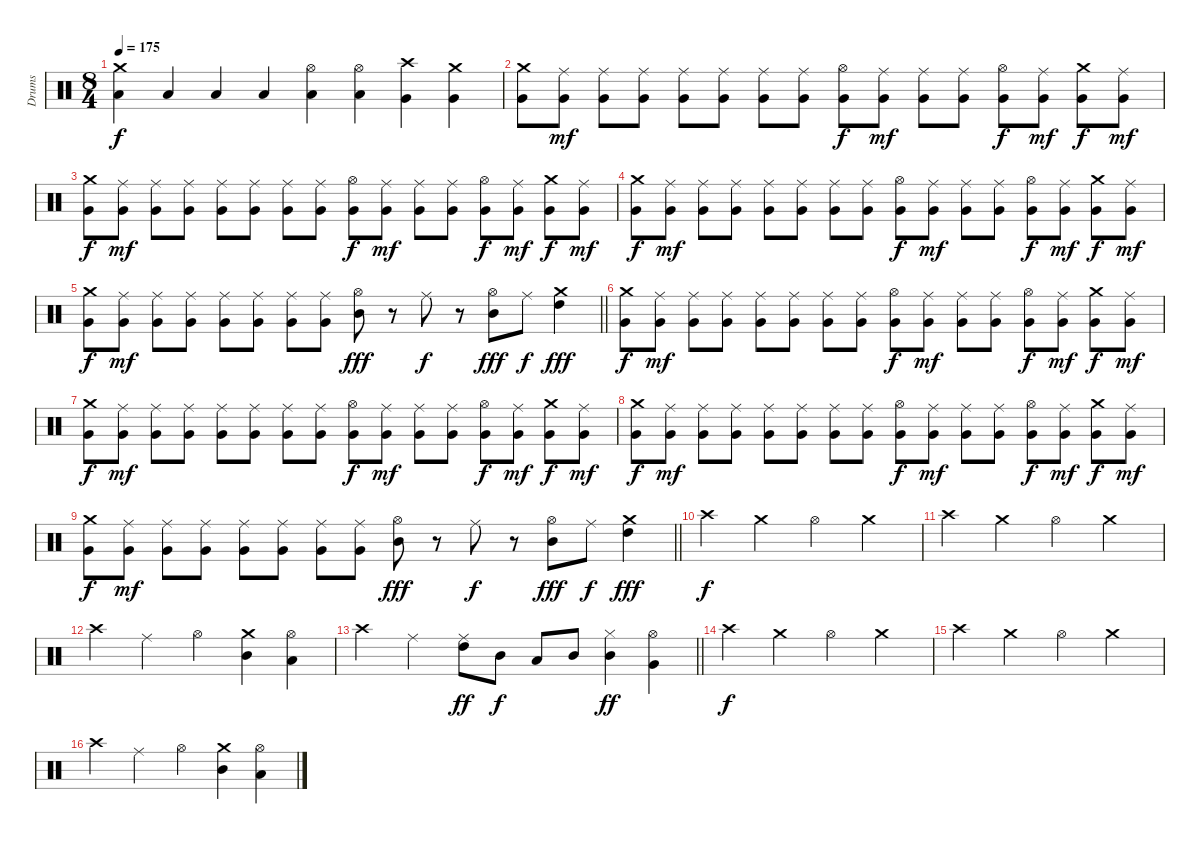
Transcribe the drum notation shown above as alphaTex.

\track ("Drums" "Drums") {instrument percussion}
\staff {score}
\articulation defaults
\ts (8 4)
\tempo 175
\clef neutral
\ks c
("Crash medium (hit)" "Low Tom (hit)").4{dy f} "Low Tom (hit)".4 "Low Tom (hit)".4 "Low Tom (hit)".4 ("Hi-Hat (open)" "Low Tom (hit)").4 ("Hi-Hat (open)" "Low Tom (hit)").4 ("Crash high (hit)" "Very Low Tom (hit)").4 ("Crash medium (hit)" "Very Low Tom (hit)").4 |
("Crash medium (hit)" "Very Low Tom (hit)").8 ("Ride (middle)" "Very Low Tom (hit)").8{dy mf} ("Ride (middle)" "Very Low Tom (hit)").8 ("Ride (middle)" "Very Low Tom (hit)").8 ("Ride (middle)" "Very Low Tom (hit)").8 ("Ride (middle)" "Very Low Tom (hit)").8 ("Ride (middle)" "Very Low Tom (hit)").8 ("Ride (middle)" "Very Low Tom (hit)").8 ("Hi-Hat (open)" "Very Low Tom (hit)").8{dy f} ("Ride (middle)" "Very Low Tom (hit)").8{dy mf} ("Ride (middle)" "Very Low Tom (hit)").8 ("Ride (middle)" "Very Low Tom (hit)").8 ("Hi-Hat (open)" "Very Low Tom (hit)").8{dy f} ("Ride (middle)" "Very Low Tom (hit)").8{dy mf} ("Crash medium (hit)" "Very Low Tom (hit)").8{dy f} ("Ride (middle)" "Very Low Tom (hit)").8{dy mf} |
("Crash medium (hit)" "Very Low Tom (hit)").8{dy f} ("Ride (middle)" "Very Low Tom (hit)").8{dy mf} ("Ride (middle)" "Very Low Tom (hit)").8 ("Ride (middle)" "Very Low Tom (hit)").8 ("Ride (middle)" "Very Low Tom (hit)").8 ("Ride (middle)" "Very Low Tom (hit)").8 ("Ride (middle)" "Very Low Tom (hit)").8 ("Ride (middle)" "Very Low Tom (hit)").8 ("Hi-Hat (open)" "Very Low Tom (hit)").8{dy f} ("Ride (middle)" "Very Low Tom (hit)").8{dy mf} ("Ride (middle)" "Very Low Tom (hit)").8 ("Ride (middle)" "Very Low Tom (hit)").8 ("Hi-Hat (open)" "Very Low Tom (hit)").8{dy f} ("Ride (middle)" "Very Low Tom (hit)").8{dy mf} ("Crash medium (hit)" "Very Low Tom (hit)").8{dy f} ("Ride (middle)" "Very Low Tom (hit)").8{dy mf} |
("Crash medium (hit)" "Very Low Tom (hit)").8{dy f} ("Ride (middle)" "Very Low Tom (hit)").8{dy mf} ("Ride (middle)" "Very Low Tom (hit)").8 ("Ride (middle)" "Very Low Tom (hit)").8 ("Ride (middle)" "Very Low Tom (hit)").8 ("Ride (middle)" "Very Low Tom (hit)").8 ("Ride (middle)" "Very Low Tom (hit)").8 ("Ride (middle)" "Very Low Tom (hit)").8 ("Hi-Hat (open)" "Very Low Tom (hit)").8{dy f} ("Ride (middle)" "Very Low Tom (hit)").8{dy mf} ("Ride (middle)" "Very Low Tom (hit)").8 ("Ride (middle)" "Very Low Tom (hit)").8 ("Hi-Hat (open)" "Very Low Tom (hit)").8{dy f} ("Ride (middle)" "Very Low Tom (hit)").8{dy mf} ("Crash medium (hit)" "Very Low Tom (hit)").8{dy f} ("Ride (middle)" "Very Low Tom (hit)").8{dy mf} |
\barLineRight lightlight
("Crash medium (hit)" "Very Low Tom (hit)").8{dy f} ("Ride (middle)" "Very Low Tom (hit)").8{dy mf} ("Ride (middle)" "Very Low Tom (hit)").8 ("Ride (middle)" "Very Low Tom (hit)").8 ("Ride (middle)" "Very Low Tom (hit)").8 ("Ride (middle)" "Very Low Tom (hit)").8 ("Ride (middle)" "Very Low Tom (hit)").8 ("Ride (middle)" "Very Low Tom (hit)").8 ("Hi-Hat (open)" "Mid Tom (hit)").8{dy fff} r.8 "Ride (middle)".8{dy f} r.8 ("Hi-Hat (open)" "Mid Tom (hit)").8{dy fff} "Ride (middle)".8{dy f} ("Crash medium (hit)" "High Tom (hit)").4{dy fff} |
("Crash medium (hit)" "Very Low Tom (hit)").8{dy f} ("Ride (middle)" "Very Low Tom (hit)").8{dy mf} ("Ride (middle)" "Very Low Tom (hit)").8 ("Ride (middle)" "Very Low Tom (hit)").8 ("Ride (middle)" "Very Low Tom (hit)").8 ("Ride (middle)" "Very Low Tom (hit)").8 ("Ride (middle)" "Very Low Tom (hit)").8 ("Ride (middle)" "Very Low Tom (hit)").8 ("Hi-Hat (open)" "Very Low Tom (hit)").8{dy f} ("Ride (middle)" "Very Low Tom (hit)").8{dy mf} ("Ride (middle)" "Very Low Tom (hit)").8 ("Ride (middle)" "Very Low Tom (hit)").8 ("Hi-Hat (open)" "Very Low Tom (hit)").8{dy f} ("Ride (middle)" "Very Low Tom (hit)").8{dy mf} ("Crash medium (hit)" "Very Low Tom (hit)").8{dy f} ("Ride (middle)" "Very Low Tom (hit)").8{dy mf} |
("Crash medium (hit)" "Very Low Tom (hit)").8{dy f} ("Ride (middle)" "Very Low Tom (hit)").8{dy mf} ("Ride (middle)" "Very Low Tom (hit)").8 ("Ride (middle)" "Very Low Tom (hit)").8 ("Ride (middle)" "Very Low Tom (hit)").8 ("Ride (middle)" "Very Low Tom (hit)").8 ("Ride (middle)" "Very Low Tom (hit)").8 ("Ride (middle)" "Very Low Tom (hit)").8 ("Hi-Hat (open)" "Very Low Tom (hit)").8{dy f} ("Ride (middle)" "Very Low Tom (hit)").8{dy mf} ("Ride (middle)" "Very Low Tom (hit)").8 ("Ride (middle)" "Very Low Tom (hit)").8 ("Hi-Hat (open)" "Very Low Tom (hit)").8{dy f} ("Ride (middle)" "Very Low Tom (hit)").8{dy mf} ("Crash medium (hit)" "Very Low Tom (hit)").8{dy f} ("Ride (middle)" "Very Low Tom (hit)").8{dy mf} |
("Crash medium (hit)" "Very Low Tom (hit)").8{dy f} ("Ride (middle)" "Very Low Tom (hit)").8{dy mf} ("Ride (middle)" "Very Low Tom (hit)").8 ("Ride (middle)" "Very Low Tom (hit)").8 ("Ride (middle)" "Very Low Tom (hit)").8 ("Ride (middle)" "Very Low Tom (hit)").8 ("Ride (middle)" "Very Low Tom (hit)").8 ("Ride (middle)" "Very Low Tom (hit)").8 ("Hi-Hat (open)" "Very Low Tom (hit)").8{dy f} ("Ride (middle)" "Very Low Tom (hit)").8{dy mf} ("Ride (middle)" "Very Low Tom (hit)").8 ("Ride (middle)" "Very Low Tom (hit)").8 ("Hi-Hat (open)" "Very Low Tom (hit)").8{dy f} ("Ride (middle)" "Very Low Tom (hit)").8{dy mf} ("Crash medium (hit)" "Very Low Tom (hit)").8{dy f} ("Ride (middle)" "Very Low Tom (hit)").8{dy mf} |
\barLineRight lightlight
("Crash medium (hit)" "Very Low Tom (hit)").8{dy f} ("Ride (middle)" "Very Low Tom (hit)").8{dy mf} ("Ride (middle)" "Very Low Tom (hit)").8 ("Ride (middle)" "Very Low Tom (hit)").8 ("Ride (middle)" "Very Low Tom (hit)").8 ("Ride (middle)" "Very Low Tom (hit)").8 ("Ride (middle)" "Very Low Tom (hit)").8 ("Ride (middle)" "Very Low Tom (hit)").8 ("Hi-Hat (open)" "Mid Tom (hit)").8{dy fff} r.8 "Ride (middle)".8{dy f} r.8 ("Hi-Hat (open)" "Mid Tom (hit)").8{dy fff} "Ride (middle)".8{dy f} ("Crash medium (hit)" "High Tom (hit)").4{dy fff} |
\section ("" "")
"Crash high (hit)".2{dy f} "Crash medium (hit)".2 "Hi-Hat (open)".2 "Crash medium (hit)".2 |
"Crash high (hit)".2 "Crash medium (hit)".2 "Hi-Hat (open)".2 "Crash medium (hit)".2 |
"Crash high (hit)".2 "Ride (middle)".2 "Hi-Hat (open)".2 ("Crash medium (hit)" "Mid Tom (hit)").4 ("Hi-Hat (open)" "Low Tom (hit)").4 |
\barLineRight lightlight "Crash high (hit)".2 "Ride (middle)".2
("Ride (middle)" "High Tom (hit)").8{dy ff} "Mid Tom (hit)".8{dy f} "Low Tom (hit)".8 "Mid Tom (hit)".8 ("Hi-Hat (closed)" "Mid Tom (hit)").4{dy ff} ("Hi-Hat (open)" "Very Low Tom (hit)").4 |
"Crash high (hit)".2{dy f} "Crash medium (hit)".2 "Hi-Hat (open)".2 "Crash medium (hit)".2 |
"Crash high (hit)".2 "Crash medium (hit)".2 "Hi-Hat (open)".2 "Crash medium (hit)".2 |
"Crash high (hit)".2 "Ride (middle)".2 "Hi-Hat (open)".2 ("Crash medium (hit)" "Mid Tom (hit)").4 ("Hi-Hat (open)" "Low Tom (hit)").4
